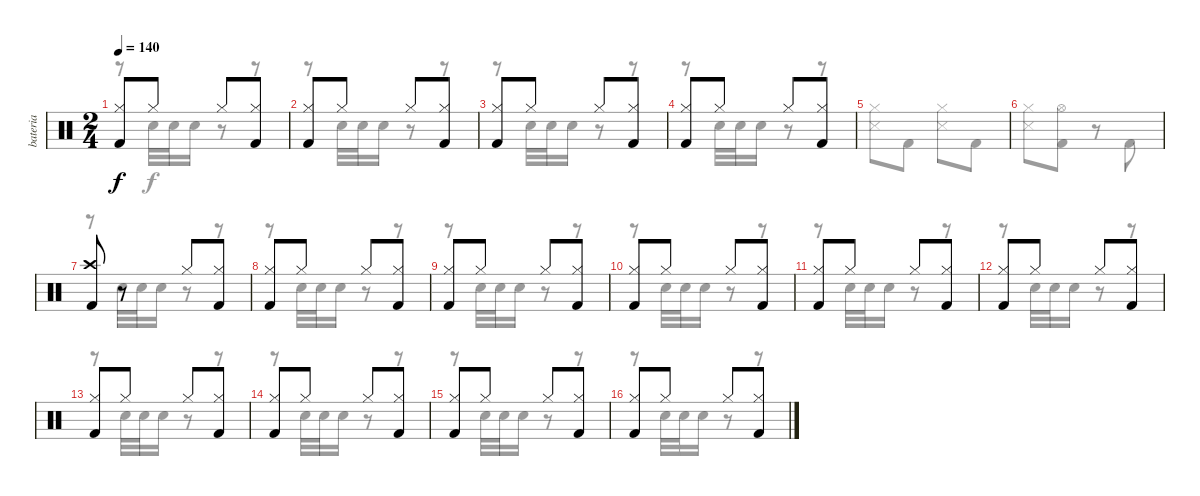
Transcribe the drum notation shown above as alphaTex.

\track ("bateria" "bateria") {instrument percussion}
\staff {score}
\articulation defaults
\voice
\ts (2 4)
\tempo 140
\clef neutral
\ks c
("Hi-Hat (closed)" "Kick (hit) 2").8{dy f} "Hi-Hat (closed)".8 "Hi-Hat (closed)".8 ("Hi-Hat (closed)" "Kick (hit) 2").8 |
("Hi-Hat (closed)" "Kick (hit) 2").8 "Hi-Hat (closed)".8 "Hi-Hat (closed)".8 ("Hi-Hat (closed)" "Kick (hit) 2").8 |
("Hi-Hat (closed)" "Kick (hit) 2").8 "Hi-Hat (closed)".8 "Hi-Hat (closed)".8 ("Hi-Hat (closed)" "Kick (hit) 2").8 |
("Hi-Hat (closed)" "Kick (hit) 2").8 "Hi-Hat (closed)".8 "Hi-Hat (closed)".8 ("Hi-Hat (closed)" "Kick (hit) 2").8 |
|
|
("Crash high (hit)" "Kick (hit) 2").8 r.8 "Hi-Hat (closed)".8 ("Hi-Hat (closed)" "Kick (hit) 2").8 |
("Hi-Hat (closed)" "Kick (hit) 2").8 "Hi-Hat (closed)".8 "Hi-Hat (closed)".8 ("Hi-Hat (closed)" "Kick (hit) 2").8 |
("Hi-Hat (closed)" "Kick (hit) 2").8 "Hi-Hat (closed)".8 "Hi-Hat (closed)".8 ("Hi-Hat (closed)" "Kick (hit) 2").8 |
("Hi-Hat (closed)" "Kick (hit) 2").8 "Hi-Hat (closed)".8 "Hi-Hat (closed)".8 ("Hi-Hat (closed)" "Kick (hit) 2").8 |
("Hi-Hat (closed)" "Kick (hit) 2").8 "Hi-Hat (closed)".8 "Hi-Hat (closed)".8 ("Hi-Hat (closed)" "Kick (hit) 2").8 |
("Hi-Hat (closed)" "Kick (hit) 2").8 "Hi-Hat (closed)".8 "Hi-Hat (closed)".8 ("Hi-Hat (closed)" "Kick (hit) 2").8 |
("Hi-Hat (closed)" "Kick (hit) 2").8 "Hi-Hat (closed)".8 "Hi-Hat (closed)".8 ("Hi-Hat (closed)" "Kick (hit) 2").8 |
("Hi-Hat (closed)" "Kick (hit) 2").8 "Hi-Hat (closed)".8 "Hi-Hat (closed)".8 ("Hi-Hat (closed)" "Kick (hit) 2").8 |
("Hi-Hat (closed)" "Kick (hit) 2").8 "Hi-Hat (closed)".8 "Hi-Hat (closed)".8 ("Hi-Hat (closed)" "Kick (hit) 2").8 |
("Hi-Hat (closed)" "Kick (hit) 2").8 "Hi-Hat (closed)".8 "Hi-Hat (closed)".8 ("Hi-Hat (closed)" "Kick (hit) 2").8
\voice
\clef neutral
\ottava regular
\simile none
\ks c
r.8{dy f} "Snare (hit) 2".32 "Snare (hit) 2".32 "Snare (hit) 2".16 r.8 r.8 |
r.8 "Snare (hit) 2".32 "Snare (hit) 2".32 "Snare (hit) 2".16 r.8 r.8 |
r.8 "Snare (hit) 2".32 "Snare (hit) 2".32 "Snare (hit) 2".16 r.8 r.8 |
r.8 "Snare (hit) 2".32 "Snare (hit) 2".32 "Snare (hit) 2".16 r.8 r.8 |
("Hi-Hat (closed)" "Snare (side stick) 3").8 "Kick (hit) 2".8 ("Hi-Hat (closed)" "Snare (side stick) 3").8 "Kick (hit) 2".8 |
("Hi-Hat (closed)" "Snare (side stick) 3").8 ("Hi-Hat (open)" "Kick (hit) 2").8 r.8 "Kick (hit) 2".8 |
r.8 "Snare (hit) 2".32 "Snare (hit) 2".32 "Snare (hit) 2".16 r.8 r.8 |
r.8 "Snare (hit) 2".32 "Snare (hit) 2".32 "Snare (hit) 2".16 r.8 r.8 |
r.8 "Snare (hit) 2".32 "Snare (hit) 2".32 "Snare (hit) 2".16 r.8 r.8 |
r.8 "Snare (hit) 2".32 "Snare (hit) 2".32 "Snare (hit) 2".16 r.8 r.8 |
r.8 "Snare (hit) 2".32 "Snare (hit) 2".32 "Snare (hit) 2".16 r.8 r.8 |
r.8 "Snare (hit) 2".32 "Snare (hit) 2".32 "Snare (hit) 2".16 r.8 r.8 |
r.8 "Snare (hit) 2".32 "Snare (hit) 2".32 "Snare (hit) 2".16 r.8 r.8 |
r.8 "Snare (hit) 2".32 "Snare (hit) 2".32 "Snare (hit) 2".16 r.8 r.8 |
r.8 "Snare (hit) 2".32 "Snare (hit) 2".32 "Snare (hit) 2".16 r.8 r.8 |
r.8 "Snare (hit) 2".32 "Snare (hit) 2".32 "Snare (hit) 2".16 r.8 r.8
